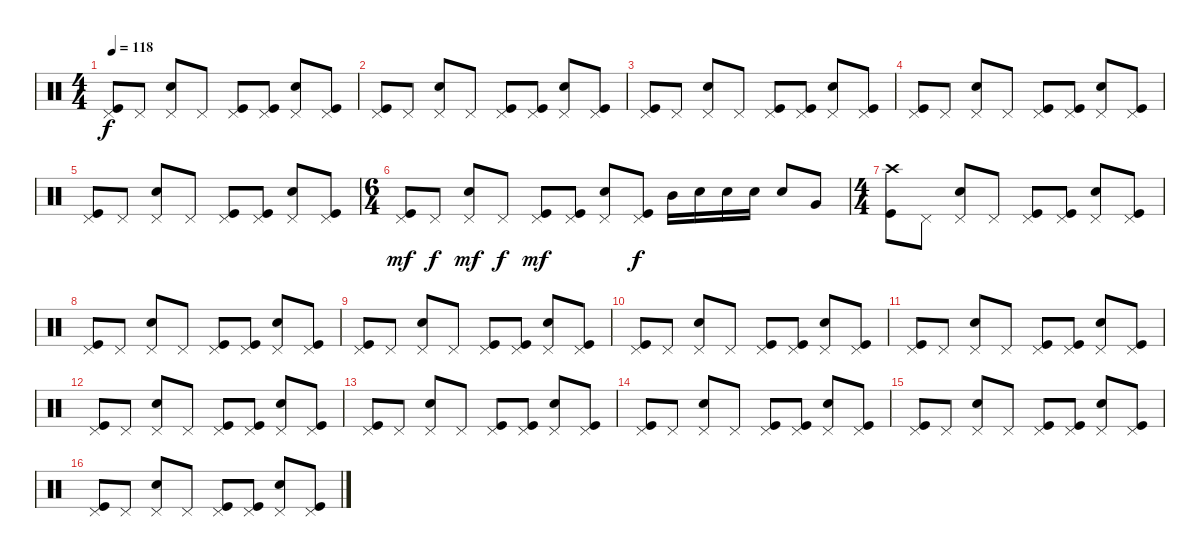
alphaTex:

\track "" {instrument percussion}
\staff {score}
\articulation defaults
\ts (4 4)
\tempo 118
\clef neutral
\ks c
("Pedal Hi-Hat (hit)" "Kick (hit)").8{dy f} "Pedal Hi-Hat (hit)".8 ("Pedal Hi-Hat (hit)" "Snare (hit) 2").8 "Pedal Hi-Hat (hit)".8 ("Pedal Hi-Hat (hit)" "Kick (hit)").8 ("Pedal Hi-Hat (hit)" "Kick (hit)").8 ("Pedal Hi-Hat (hit)" "Snare (hit) 2").8 ("Pedal Hi-Hat (hit)" "Kick (hit)").8 |
("Pedal Hi-Hat (hit)" "Kick (hit)").8 "Pedal Hi-Hat (hit)".8 ("Pedal Hi-Hat (hit)" "Snare (hit) 2").8 "Pedal Hi-Hat (hit)".8 ("Pedal Hi-Hat (hit)" "Kick (hit)").8 ("Pedal Hi-Hat (hit)" "Kick (hit)").8 ("Pedal Hi-Hat (hit)" "Snare (hit) 2").8 ("Pedal Hi-Hat (hit)" "Kick (hit)").8 |
("Pedal Hi-Hat (hit)" "Kick (hit)").8 "Pedal Hi-Hat (hit)".8 ("Pedal Hi-Hat (hit)" "Snare (hit) 2").8 "Pedal Hi-Hat (hit)".8 ("Pedal Hi-Hat (hit)" "Kick (hit)").8 ("Pedal Hi-Hat (hit)" "Kick (hit)").8 ("Pedal Hi-Hat (hit)" "Snare (hit) 2").8 ("Pedal Hi-Hat (hit)" "Kick (hit)").8 |
("Pedal Hi-Hat (hit)" "Kick (hit)").8 "Pedal Hi-Hat (hit)".8 ("Pedal Hi-Hat (hit)" "Snare (hit) 2").8 "Pedal Hi-Hat (hit)".8 ("Pedal Hi-Hat (hit)" "Kick (hit)").8 ("Pedal Hi-Hat (hit)" "Kick (hit)").8 ("Pedal Hi-Hat (hit)" "Snare (hit) 2").8 ("Pedal Hi-Hat (hit)" "Kick (hit)").8 |
("Pedal Hi-Hat (hit)" "Kick (hit)").8 "Pedal Hi-Hat (hit)".8 ("Pedal Hi-Hat (hit)" "Snare (hit) 2").8 "Pedal Hi-Hat (hit)".8 ("Pedal Hi-Hat (hit)" "Kick (hit)").8 ("Pedal Hi-Hat (hit)" "Kick (hit)").8 ("Pedal Hi-Hat (hit)" "Snare (hit) 2").8 ("Pedal Hi-Hat (hit)" "Kick (hit)").8 |
\ts (6 4)
("Pedal Hi-Hat (hit)" "Kick (hit)").8{dy mf} "Pedal Hi-Hat (hit)".8{dy f} ("Pedal Hi-Hat (hit)" "Snare (hit) 2").8{dy mf} "Pedal Hi-Hat (hit)".8{dy f} ("Pedal Hi-Hat (hit)" "Kick (hit)").8{dy mf} ("Pedal Hi-Hat (hit)" "Kick (hit)").8 ("Pedal Hi-Hat (hit)" "Snare (hit) 2").8 ("Pedal Hi-Hat (hit)" "Kick (hit)").8{dy f} "Mid Tom (hit)".16 "Snare (hit) 2".16 "Snare (hit) 2".16 "Snare (hit) 2".16 "Snare (hit) 2".8 "Very Low Tom (hit)".8 |
\ts (4 4)
("Crash high (hit)" "Kick (hit)").8 "Pedal Hi-Hat (hit)".8 ("Pedal Hi-Hat (hit)" "Snare (hit) 2").8 "Pedal Hi-Hat (hit)".8 ("Pedal Hi-Hat (hit)" "Kick (hit)").8 ("Pedal Hi-Hat (hit)" "Kick (hit)").8 ("Pedal Hi-Hat (hit)" "Snare (hit) 2").8 ("Pedal Hi-Hat (hit)" "Kick (hit)").8 |
("Pedal Hi-Hat (hit)" "Kick (hit)").8 "Pedal Hi-Hat (hit)".8 ("Pedal Hi-Hat (hit)" "Snare (hit) 2").8 "Pedal Hi-Hat (hit)".8 ("Pedal Hi-Hat (hit)" "Kick (hit)").8 ("Pedal Hi-Hat (hit)" "Kick (hit)").8 ("Pedal Hi-Hat (hit)" "Snare (hit) 2").8 ("Pedal Hi-Hat (hit)" "Kick (hit)").8 |
("Pedal Hi-Hat (hit)" "Kick (hit)").8 "Pedal Hi-Hat (hit)".8 ("Pedal Hi-Hat (hit)" "Snare (hit) 2").8 "Pedal Hi-Hat (hit)".8 ("Pedal Hi-Hat (hit)" "Kick (hit)").8 ("Pedal Hi-Hat (hit)" "Kick (hit)").8 ("Pedal Hi-Hat (hit)" "Snare (hit) 2").8 ("Pedal Hi-Hat (hit)" "Kick (hit)").8 |
("Pedal Hi-Hat (hit)" "Kick (hit)").8 "Pedal Hi-Hat (hit)".8 ("Pedal Hi-Hat (hit)" "Snare (hit) 2").8 "Pedal Hi-Hat (hit)".8 ("Pedal Hi-Hat (hit)" "Kick (hit)").8 ("Pedal Hi-Hat (hit)" "Kick (hit)").8 ("Pedal Hi-Hat (hit)" "Snare (hit) 2").8 ("Pedal Hi-Hat (hit)" "Kick (hit)").8 |
("Pedal Hi-Hat (hit)" "Kick (hit)").8 "Pedal Hi-Hat (hit)".8 ("Pedal Hi-Hat (hit)" "Snare (hit) 2").8 "Pedal Hi-Hat (hit)".8 ("Pedal Hi-Hat (hit)" "Kick (hit)").8 ("Pedal Hi-Hat (hit)" "Kick (hit)").8 ("Pedal Hi-Hat (hit)" "Snare (hit) 2").8 ("Pedal Hi-Hat (hit)" "Kick (hit)").8 |
("Pedal Hi-Hat (hit)" "Kick (hit)").8 "Pedal Hi-Hat (hit)".8 ("Pedal Hi-Hat (hit)" "Snare (hit) 2").8 "Pedal Hi-Hat (hit)".8 ("Pedal Hi-Hat (hit)" "Kick (hit)").8 ("Pedal Hi-Hat (hit)" "Kick (hit)").8 ("Pedal Hi-Hat (hit)" "Snare (hit) 2").8 ("Pedal Hi-Hat (hit)" "Kick (hit)").8 |
("Pedal Hi-Hat (hit)" "Kick (hit)").8 "Pedal Hi-Hat (hit)".8 ("Pedal Hi-Hat (hit)" "Snare (hit) 2").8 "Pedal Hi-Hat (hit)".8 ("Pedal Hi-Hat (hit)" "Kick (hit)").8 ("Pedal Hi-Hat (hit)" "Kick (hit)").8 ("Pedal Hi-Hat (hit)" "Snare (hit) 2").8 ("Pedal Hi-Hat (hit)" "Kick (hit)").8 |
("Pedal Hi-Hat (hit)" "Kick (hit)").8 "Pedal Hi-Hat (hit)".8 ("Pedal Hi-Hat (hit)" "Snare (hit) 2").8 "Pedal Hi-Hat (hit)".8 ("Pedal Hi-Hat (hit)" "Kick (hit)").8 ("Pedal Hi-Hat (hit)" "Kick (hit)").8 ("Pedal Hi-Hat (hit)" "Snare (hit) 2").8 ("Pedal Hi-Hat (hit)" "Kick (hit)").8 |
("Pedal Hi-Hat (hit)" "Kick (hit)").8 "Pedal Hi-Hat (hit)".8 ("Pedal Hi-Hat (hit)" "Snare (hit) 2").8 "Pedal Hi-Hat (hit)".8 ("Pedal Hi-Hat (hit)" "Kick (hit)").8 ("Pedal Hi-Hat (hit)" "Kick (hit)").8 ("Pedal Hi-Hat (hit)" "Snare (hit) 2").8 ("Pedal Hi-Hat (hit)" "Kick (hit)").8 |
("Pedal Hi-Hat (hit)" "Kick (hit)").8 "Pedal Hi-Hat (hit)".8 ("Pedal Hi-Hat (hit)" "Snare (hit) 2").8 "Pedal Hi-Hat (hit)".8 ("Pedal Hi-Hat (hit)" "Kick (hit)").8 ("Pedal Hi-Hat (hit)" "Kick (hit)").8 ("Pedal Hi-Hat (hit)" "Snare (hit) 2").8 ("Pedal Hi-Hat (hit)" "Kick (hit)").8
